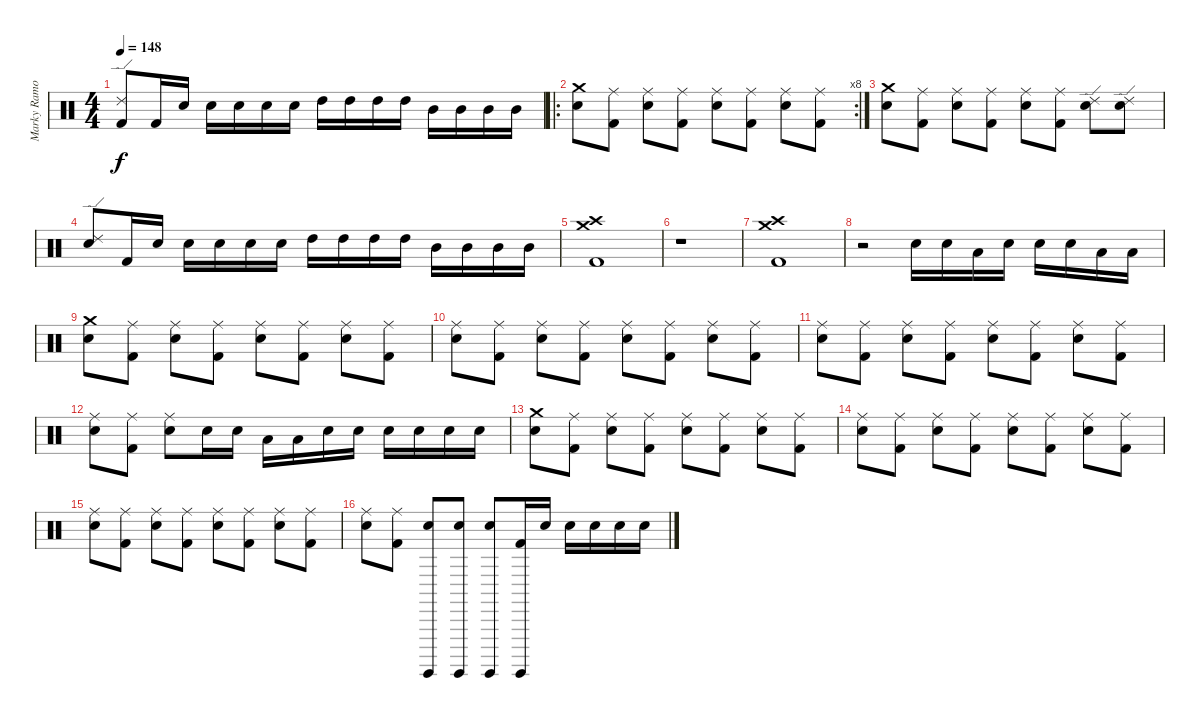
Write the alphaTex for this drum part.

\track ("Marky Ramone" "Marky Ramo") {instrument percussion}
\staff {score}
\articulation defaults
\ts (4 4)
\tempo 148
\clef neutral
\ks c
("Ride (edge) 2" "Kick (hit) 2").8{dy f} "Kick (hit) 2".16 "Snare (hit) 2".16 "Snare (hit) 2".16 "Snare (hit) 2".16 "Snare (hit) 2".16 "Snare (hit) 2".16 "High Tom (hit)".16 "High Tom (hit)".16 "High Tom (hit)".16 "High Tom (hit)".16 "Mid Tom (hit)".16 "Mid Tom (hit)".16 "Mid Tom (hit)".16 "Mid Tom (hit)".16 |
\ro
\rc 8
("Crash medium (hit)" "Snare (hit) 2").8 ("Ride (middle)" "Kick (hit) 2").8 ("Ride (middle)" "Snare (hit) 2").8 ("Ride (middle)" "Kick (hit) 2").8 ("Ride (middle)" "Snare (hit) 2").8 ("Ride (middle)" "Kick (hit) 2").8 ("Ride (middle)" "Snare (hit) 2").8 ("Ride (middle)" "Kick (hit) 2").8 |
("Crash medium (hit)" "Snare (hit) 2").8 ("Ride (middle)" "Kick (hit) 2").8 ("Ride (middle)" "Snare (hit) 2").8 ("Ride (middle)" "Kick (hit) 2").8 ("Ride (middle)" "Snare (hit) 2").8 ("Ride (middle)" "Kick (hit) 2").8 ("Ride (edge) 2" "Snare (hit) 2").8 ("Ride (edge) 2" "Snare (hit) 2").8 |
("Ride (edge) 2" "Snare (hit) 2").8 "Kick (hit) 2".16 "Snare (hit) 2".16 "Snare (hit) 2".16 "Snare (hit) 2".16 "Snare (hit) 2".16 "Snare (hit) 2".16 "High Tom (hit)".16 "High Tom (hit)".16 "High Tom (hit)".16 "High Tom (hit)".16 "Mid Tom (hit)".16 "Mid Tom (hit)".16 "Mid Tom (hit)".16 "Mid Tom (hit)".16 |
("Crash medium (hit)" "Crash high (hit)" "Kick (hit) 2").1 |
r.1 |
("Crash medium (hit)" "Crash high (hit)" "Kick (hit) 2").1 |
r.2 "Snare (hit) 2".16 "Snare (hit) 2".16 "Low Tom (hit)".16 "Snare (hit) 2".16 "Snare (hit) 2".16 "Snare (hit) 2".16 "Low Tom (hit)".16 "Low Tom (hit)".16 |
("Crash medium (hit)" "Snare (hit) 2").8 ("Ride (middle)" "Kick (hit) 2").8 ("Ride (middle)" "Snare (hit) 2").8 ("Ride (middle)" "Kick (hit) 2").8 ("Ride (middle)" "Snare (hit) 2").8 ("Ride (middle)" "Kick (hit) 2").8 ("Ride (middle)" "Snare (hit) 2").8 ("Ride (middle)" "Kick (hit) 2").8 |
("Ride (middle)" "Snare (hit) 2").8 ("Ride (middle)" "Kick (hit) 2").8 ("Ride (middle)" "Snare (hit) 2").8 ("Ride (middle)" "Kick (hit) 2").8 ("Ride (middle)" "Snare (hit) 2").8 ("Ride (middle)" "Kick (hit) 2").8 ("Ride (middle)" "Snare (hit) 2").8 ("Ride (middle)" "Kick (hit) 2").8 |
("Ride (middle)" "Snare (hit) 2").8 ("Ride (middle)" "Kick (hit) 2").8 ("Ride (middle)" "Snare (hit) 2").8 ("Ride (middle)" "Kick (hit) 2").8 ("Ride (middle)" "Snare (hit) 2").8 ("Ride (middle)" "Kick (hit) 2").8 ("Ride (middle)" "Snare (hit) 2").8 ("Ride (middle)" "Kick (hit) 2").8 |
("Ride (middle)" "Snare (hit) 2").8 ("Ride (middle)" "Kick (hit) 2").8 ("Ride (middle)" "Snare (hit) 2").8 "Snare (hit) 2".16 "Snare (hit) 2".16 "Low Tom (hit)".16 "Low Tom (hit)".16 "Snare (hit) 2".16 "Snare (hit) 2".16 "Snare (hit) 2".16 "Snare (hit) 2".16 "Snare (hit) 2".16 "Snare (hit) 2".16 |
("Crash medium (hit)" "Snare (hit) 2").8 ("Ride (middle)" "Kick (hit) 2").8 ("Ride (middle)" "Snare (hit) 2").8 ("Ride (middle)" "Kick (hit) 2").8 ("Ride (middle)" "Snare (hit) 2").8 ("Ride (middle)" "Kick (hit) 2").8 ("Ride (middle)" "Snare (hit) 2").8 ("Ride (middle)" "Kick (hit) 2").8 |
("Ride (middle)" "Snare (hit) 2").8 ("Ride (middle)" "Kick (hit) 2").8 ("Ride (middle)" "Snare (hit) 2").8 ("Ride (middle)" "Kick (hit) 2").8 ("Ride (middle)" "Snare (hit) 2").8 ("Ride (middle)" "Kick (hit) 2").8 ("Ride (middle)" "Snare (hit) 2").8 ("Ride (middle)" "Kick (hit) 2").8 |
("Ride (middle)" "Snare (hit) 2").8 ("Ride (middle)" "Kick (hit) 2").8 ("Ride (middle)" "Snare (hit) 2").8 ("Ride (middle)" "Kick (hit) 2").8 ("Ride (middle)" "Snare (hit) 2").8 ("Ride (middle)" "Kick (hit) 2").8 ("Ride (middle)" "Snare (hit) 2").8 ("Ride (middle)" "Kick (hit) 2").8 |
("Ride (middle)" "Snare (hit) 2").8 ("Ride (middle)" "Kick (hit) 2").8 ("Surdo (hit)" "Snare (hit) 2").8 ("Surdo (hit)" "Snare (hit) 2").8 ("Surdo (hit)" "Snare (hit) 2").8 ("Surdo (hit)" "Kick (hit) 2").16 "Snare (hit) 2".16 "Snare (hit) 2".16 "Snare (hit) 2".16 "Snare (hit) 2".16 "Snare (hit) 2".16
